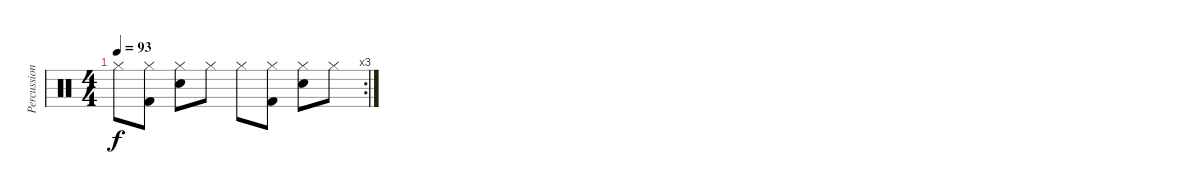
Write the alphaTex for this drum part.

\track ("Percussion" "Percussion") {instrument percussion}
\staff {score}
\articulation defaults
\rc 3
\ts (4 4)
\tempo 93
\clef neutral
\ks c "Hi-Hat (closed)".8{dy f}
("Hi-Hat (closed)" "Kick (hit) 2").8 ("Hi-Hat (closed)" "Snare (hit) 2").8 "Hi-Hat (closed)".8 "Hi-Hat (closed)".8 ("Hi-Hat (closed)" "Kick (hit) 2").8 ("Hi-Hat (closed)" "Snare (hit) 2").8 "Hi-Hat (closed)".8
